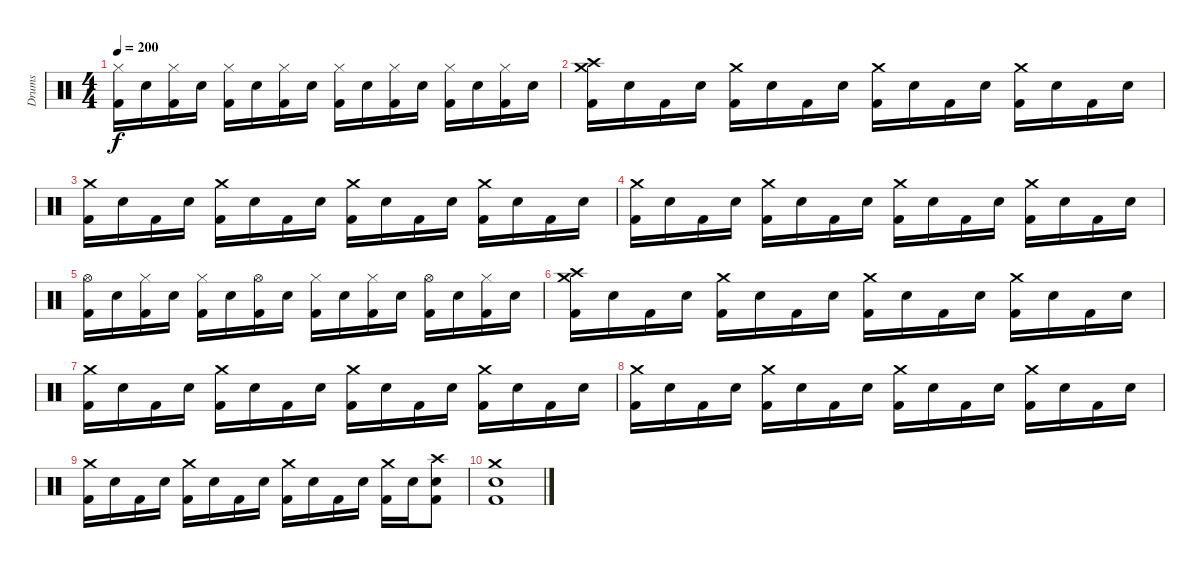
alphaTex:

\track ("Drums" "Drums") {instrument percussion}
\staff {score}
\articulation defaults
\ts (4 4)
\tempo 200
\clef neutral
\ks c
("Kick (hit) 2" "Hi-Hat (closed)").16{dy f} "Snare (hit) 2".16 ("Kick (hit) 2" "Hi-Hat (closed)").16 "Snare (hit) 2".16 ("Kick (hit) 2" "Hi-Hat (closed)").16 "Snare (hit) 2".16 ("Kick (hit) 2" "Hi-Hat (closed)").16 "Snare (hit) 2".16 ("Kick (hit) 2" "Hi-Hat (closed)").16 "Snare (hit) 2".16 ("Kick (hit) 2" "Hi-Hat (closed)").16 "Snare (hit) 2".16 ("Kick (hit) 2" "Hi-Hat (closed)").16 "Snare (hit) 2".16 ("Kick (hit) 2" "Hi-Hat (closed)").16 "Snare (hit) 2".16 |
("Kick (hit) 2" "Crash medium (hit)" "Crash high (hit)").16 "Snare (hit) 2".16 "Kick (hit) 2".16 "Snare (hit) 2".16 ("Kick (hit) 2" "Crash medium (hit)").16 "Snare (hit) 2".16 "Kick (hit) 2".16 "Snare (hit) 2".16 ("Kick (hit) 2" "Crash medium (hit)").16 "Snare (hit) 2".16 "Kick (hit) 2".16 "Snare (hit) 2".16 ("Kick (hit) 2" "Crash medium (hit)").16 "Snare (hit) 2".16 "Kick (hit) 2".16 "Snare (hit) 2".16 |
("Kick (hit) 2" "Crash medium (hit)").16 "Snare (hit) 2".16 "Kick (hit) 2".16 "Snare (hit) 2".16 ("Kick (hit) 2" "Crash medium (hit)").16 "Snare (hit) 2".16 "Kick (hit) 2".16 "Snare (hit) 2".16 ("Kick (hit) 2" "Crash medium (hit)").16 "Snare (hit) 2".16 "Kick (hit) 2".16 "Snare (hit) 2".16 ("Kick (hit) 2" "Crash medium (hit)").16 "Snare (hit) 2".16 "Kick (hit) 2".16 "Snare (hit) 2".16 |
("Kick (hit) 2" "Crash medium (hit)").16 "Snare (hit) 2".16 "Kick (hit) 2".16 "Snare (hit) 2".16 ("Kick (hit) 2" "Crash medium (hit)").16 "Snare (hit) 2".16 "Kick (hit) 2".16 "Snare (hit) 2".16 ("Kick (hit) 2" "Crash medium (hit)").16 "Snare (hit) 2".16 "Kick (hit) 2".16 "Snare (hit) 2".16 ("Kick (hit) 2" "Crash medium (hit)").16 "Snare (hit) 2".16 "Kick (hit) 2".16 "Snare (hit) 2".16 |
("Kick (hit) 2" "Hi-Hat (open)").16 "Snare (hit) 2".16 ("Kick (hit) 2" "Hi-Hat (closed)").16 "Snare (hit) 2".16 ("Kick (hit) 2" "Hi-Hat (closed)").16 "Snare (hit) 2".16 ("Kick (hit) 2" "Hi-Hat (open)").16 "Snare (hit) 2".16 ("Kick (hit) 2" "Hi-Hat (closed)").16 "Snare (hit) 2".16 ("Kick (hit) 2" "Hi-Hat (closed)").16 "Snare (hit) 2".16 ("Kick (hit) 2" "Hi-Hat (open)").16 "Snare (hit) 2".16 ("Kick (hit) 2" "Hi-Hat (closed)").16 "Snare (hit) 2".16 |
("Kick (hit) 2" "Crash medium (hit)" "Crash high (hit)").16 "Snare (hit) 2".16 "Kick (hit) 2".16 "Snare (hit) 2".16 ("Kick (hit) 2" "Crash medium (hit)").16 "Snare (hit) 2".16 "Kick (hit) 2".16 "Snare (hit) 2".16 ("Kick (hit) 2" "Crash medium (hit)").16 "Snare (hit) 2".16 "Kick (hit) 2".16 "Snare (hit) 2".16 ("Kick (hit) 2" "Crash medium (hit)").16 "Snare (hit) 2".16 "Kick (hit) 2".16 "Snare (hit) 2".16 |
("Kick (hit) 2" "Crash medium (hit)").16 "Snare (hit) 2".16 "Kick (hit) 2".16 "Snare (hit) 2".16 ("Kick (hit) 2" "Crash medium (hit)").16 "Snare (hit) 2".16 "Kick (hit) 2".16 "Snare (hit) 2".16 ("Kick (hit) 2" "Crash medium (hit)").16 "Snare (hit) 2".16 "Kick (hit) 2".16 "Snare (hit) 2".16 ("Kick (hit) 2" "Crash medium (hit)").16 "Snare (hit) 2".16 "Kick (hit) 2".16 "Snare (hit) 2".16 |
("Kick (hit) 2" "Crash medium (hit)").16 "Snare (hit) 2".16 "Kick (hit) 2".16 "Snare (hit) 2".16 ("Kick (hit) 2" "Crash medium (hit)").16 "Snare (hit) 2".16 "Kick (hit) 2".16 "Snare (hit) 2".16 ("Kick (hit) 2" "Crash medium (hit)").16 "Snare (hit) 2".16 "Kick (hit) 2".16 "Snare (hit) 2".16 ("Kick (hit) 2" "Crash medium (hit)").16 "Snare (hit) 2".16 "Kick (hit) 2".16 "Snare (hit) 2".16 |
("Kick (hit) 2" "Crash medium (hit)").16 "Snare (hit) 2".16 "Kick (hit) 2".16 "Snare (hit) 2".16 ("Kick (hit) 2" "Crash medium (hit)").16 "Snare (hit) 2".16 "Kick (hit) 2".16 "Snare (hit) 2".16 ("Kick (hit) 2" "Crash medium (hit)").16 "Snare (hit) 2".16 "Kick (hit) 2".16 "Snare (hit) 2".16 ("Kick (hit) 2" "Crash medium (hit)").16 "Snare (hit) 2".16 ("Kick (hit) 2" "Snare (hit) 2" "Crash high (hit)").8 |
("Kick (hit) 2" "Snare (hit) 2" "Crash medium (hit)").1
